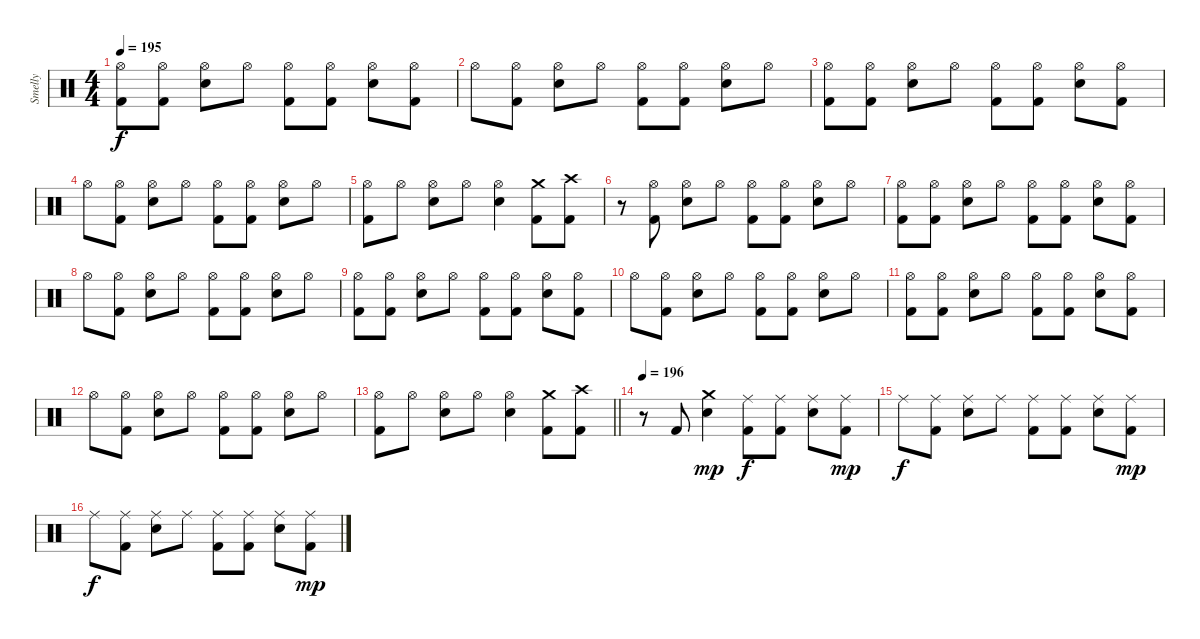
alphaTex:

\track ("Smelly" "Smelly") {instrument percussion}
\staff {score}
\articulation defaults
\ts (4 4)
\tempo 195
\clef neutral
\ks c
("Hi-Hat (open)" "Kick (hit) 2").8{dy f} ("Hi-Hat (open)" "Kick (hit) 2").8 ("Hi-Hat (open)" "Electric Snare (hit)").8 "Hi-Hat (open)".8 ("Hi-Hat (open)" "Kick (hit) 2").8 ("Hi-Hat (open)" "Kick (hit) 2").8 ("Hi-Hat (open)" "Electric Snare (hit)").8 ("Hi-Hat (open)" "Kick (hit) 2").8 |
"Hi-Hat (open)".8 ("Hi-Hat (open)" "Kick (hit) 2").8 ("Hi-Hat (open)" "Electric Snare (hit)").8 "Hi-Hat (open)".8 ("Hi-Hat (open)" "Kick (hit) 2").8 ("Hi-Hat (open)" "Kick (hit) 2").8 ("Hi-Hat (open)" "Electric Snare (hit)").8 "Hi-Hat (open)".8 |
("Hi-Hat (open)" "Kick (hit) 2").8 ("Hi-Hat (open)" "Kick (hit) 2").8 ("Hi-Hat (open)" "Electric Snare (hit)").8 "Hi-Hat (open)".8 ("Hi-Hat (open)" "Kick (hit) 2").8 ("Hi-Hat (open)" "Kick (hit) 2").8 ("Hi-Hat (open)" "Electric Snare (hit)").8 ("Hi-Hat (open)" "Kick (hit) 2").8 |
"Hi-Hat (open)".8 ("Hi-Hat (open)" "Kick (hit) 2").8 ("Hi-Hat (open)" "Electric Snare (hit)").8 "Hi-Hat (open)".8 ("Hi-Hat (open)" "Kick (hit) 2").8 ("Hi-Hat (open)" "Kick (hit) 2").8 ("Hi-Hat (open)" "Electric Snare (hit)").8 "Hi-Hat (open)".8 |
("Hi-Hat (open)" "Kick (hit) 2").8 "Hi-Hat (open)".8 ("Hi-Hat (open)" "Electric Snare (hit)").8 "Hi-Hat (open)".8 ("Hi-Hat (open)" "Electric Snare (hit)").4 ("Crash medium (hit)" "Kick (hit) 2").8 ("Crash high (hit)" "Kick (hit) 2").8 |
r.8 ("Hi-Hat (open)" "Kick (hit) 2").8 ("Hi-Hat (open)" "Electric Snare (hit)").8 "Hi-Hat (open)".8 ("Hi-Hat (open)" "Kick (hit) 2").8 ("Hi-Hat (open)" "Kick (hit) 2").8 ("Hi-Hat (open)" "Electric Snare (hit)").8 "Hi-Hat (open)".8 |
("Hi-Hat (open)" "Kick (hit) 2").8 ("Hi-Hat (open)" "Kick (hit) 2").8 ("Hi-Hat (open)" "Electric Snare (hit)").8 "Hi-Hat (open)".8 ("Hi-Hat (open)" "Kick (hit) 2").8 ("Hi-Hat (open)" "Kick (hit) 2").8 ("Hi-Hat (open)" "Electric Snare (hit)").8 ("Hi-Hat (open)" "Kick (hit) 2").8 |
"Hi-Hat (open)".8 ("Hi-Hat (open)" "Kick (hit) 2").8 ("Hi-Hat (open)" "Electric Snare (hit)").8 "Hi-Hat (open)".8 ("Hi-Hat (open)" "Kick (hit) 2").8 ("Hi-Hat (open)" "Kick (hit) 2").8 ("Hi-Hat (open)" "Electric Snare (hit)").8 "Hi-Hat (open)".8 |
("Hi-Hat (open)" "Kick (hit) 2").8 ("Hi-Hat (open)" "Kick (hit) 2").8 ("Hi-Hat (open)" "Electric Snare (hit)").8 "Hi-Hat (open)".8 ("Hi-Hat (open)" "Kick (hit) 2").8 ("Hi-Hat (open)" "Kick (hit) 2").8 ("Hi-Hat (open)" "Electric Snare (hit)").8 ("Hi-Hat (open)" "Kick (hit) 2").8 |
"Hi-Hat (open)".8 ("Hi-Hat (open)" "Kick (hit) 2").8 ("Hi-Hat (open)" "Electric Snare (hit)").8 "Hi-Hat (open)".8 ("Hi-Hat (open)" "Kick (hit) 2").8 ("Hi-Hat (open)" "Kick (hit) 2").8 ("Hi-Hat (open)" "Electric Snare (hit)").8 "Hi-Hat (open)".8 |
("Hi-Hat (open)" "Kick (hit) 2").8 ("Hi-Hat (open)" "Kick (hit) 2").8 ("Hi-Hat (open)" "Electric Snare (hit)").8 "Hi-Hat (open)".8 ("Hi-Hat (open)" "Kick (hit) 2").8 ("Hi-Hat (open)" "Kick (hit) 2").8 ("Hi-Hat (open)" "Electric Snare (hit)").8 ("Hi-Hat (open)" "Kick (hit) 2").8 |
"Hi-Hat (open)".8 ("Hi-Hat (open)" "Kick (hit) 2").8 ("Hi-Hat (open)" "Electric Snare (hit)").8 "Hi-Hat (open)".8 ("Hi-Hat (open)" "Kick (hit) 2").8 ("Hi-Hat (open)" "Kick (hit) 2").8 ("Hi-Hat (open)" "Electric Snare (hit)").8 "Hi-Hat (open)".8 |
\barLineRight lightlight
("Hi-Hat (open)" "Kick (hit) 2").8 "Hi-Hat (open)".8 ("Hi-Hat (open)" "Electric Snare (hit)").8 "Hi-Hat (open)".8 ("Hi-Hat (open)" "Electric Snare (hit)").4 ("Crash medium (hit)" "Kick (hit) 2").8 ("Crash high (hit)" "Kick (hit) 2").8 |
\section ("" "")
\tempo 196
r.8 "Kick (hit) 2".8 ("Crash medium (hit)" "Electric Snare (hit)").4{dy mp} ("Ride (middle)" "Kick (hit) 2").8{dy f} ("Ride (middle)" "Kick (hit) 2").8 ("Ride (middle)" "Electric Snare (hit)").8 ("Ride (middle)" "Kick (hit) 2").8{dy mp} |
"Ride (middle)".8{dy f} ("Ride (middle)" "Kick (hit) 2").8 ("Ride (middle)" "Electric Snare (hit)").8 "Ride (middle)".8 ("Ride (middle)" "Kick (hit) 2").8 ("Ride (middle)" "Kick (hit) 2").8 ("Ride (middle)" "Electric Snare (hit)").8 ("Ride (middle)" "Kick (hit) 2").8{dy mp} |
"Ride (middle)".8{dy f} ("Ride (middle)" "Kick (hit) 2").8 ("Ride (middle)" "Electric Snare (hit)").8 "Ride (middle)".8 ("Ride (middle)" "Kick (hit) 2").8 ("Ride (middle)" "Kick (hit) 2").8 ("Ride (middle)" "Electric Snare (hit)").8 ("Ride (middle)" "Kick (hit) 2").8{dy mp}
